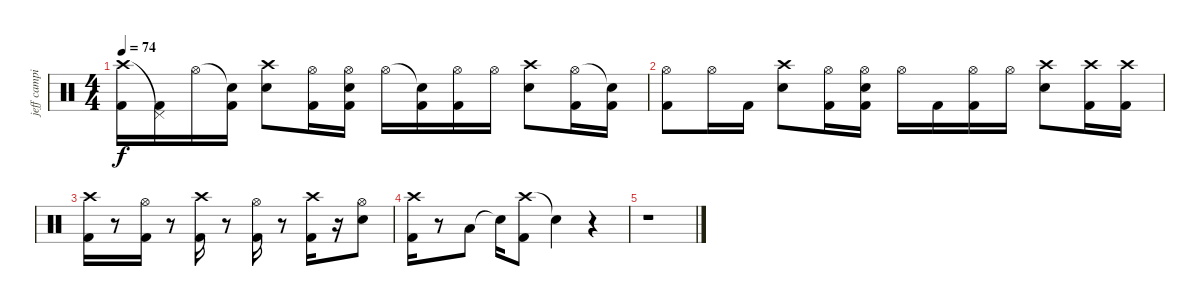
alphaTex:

\track ("jeff campitelli" "jeff campi") {instrument percussion}
\staff {score}
\articulation defaults
\ts (4 4)
\tempo 74
\clef neutral
\ks c
("Crash high (hit)" "Kick (hit) 2").16{dy f} ("Pedal Hi-Hat (hit)"{t} "Kick (hit) 2").16 "Hi-Hat (open)".16 ("Snare (hit)"{t} "Kick (hit) 2").16 ("Crash high (hit)" "Electric Snare (hit)").8 ("Hi-Hat (open)" "Kick (hit) 2").16 ("Hi-Hat (open)" "Electric Snare (hit)" "Kick (hit) 2").16 "Hi-Hat (open)".16 ("Snare (hit)"{t} "Kick (hit) 2").16 ("Hi-Hat (open)" "Kick (hit) 2").16 "Hi-Hat (open)".16 ("Crash high (hit)" "Electric Snare (hit)").8 ("Hi-Hat (open)" "Kick (hit) 2").16 ("Snare (hit)"{t} "Kick (hit) 2").16 |
("Hi-Hat (open)" "Kick (hit) 2").8 "Hi-Hat (open)".16 "Kick (hit) 2".16 ("Crash high (hit)" "Electric Snare (hit)").8 ("Hi-Hat (open)" "Kick (hit) 2").16 ("Hi-Hat (open)" "Electric Snare (hit)" "Kick (hit) 2").16 "Hi-Hat (open)".16 "Kick (hit) 2".16 ("Hi-Hat (open)" "Kick (hit) 2").16 "Hi-Hat (open)".16 ("Crash high (hit)" "Electric Snare (hit)").8 ("Crash high (hit)" "Kick (hit) 2").16 ("Crash high (hit)" "Kick (hit) 2").16 |
("Crash high (hit)" "Kick (hit) 2").16 r.8 ("Hi-Hat (open)" "Kick (hit) 2").16 r.8 ("Crash high (hit)" "Kick (hit) 2").16 r.8 ("Hi-Hat (open)" "Kick (hit) 2").16 r.8 ("Crash high (hit)" "Kick (hit) 2").16 r.16 ("Hi-Hat (open)" "Electric Snare (hit)").8 |
("Crash high (hit)" "Kick (hit) 2").16 r.8 "Low Tom (hit)".8 "Snare (hit)"{t}.16 ("Crash high (hit)" "Kick (hit) 2").8 "Snare (hit)"{t}.4 r.4 |
r.1
